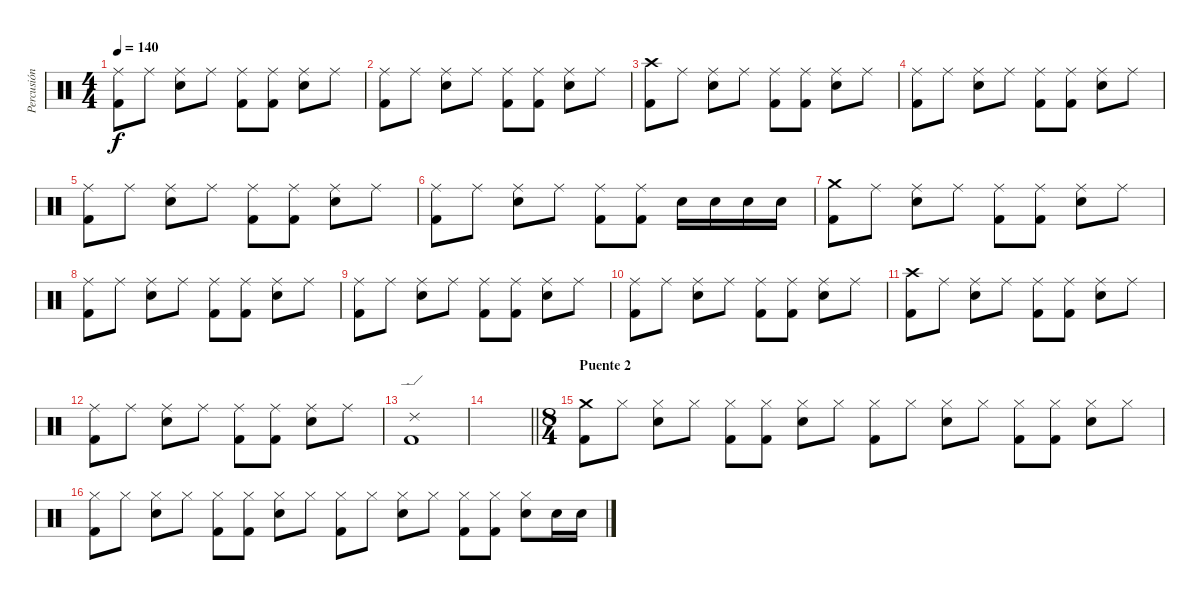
\track ("Percusión" "Percusión") {instrument percussion}
\staff {score}
\articulation defaults
\ts (4 4)
\tempo 140
\clef neutral
\ks c
("Ride (middle)" "Kick (hit) 2").8{dy f} "Ride (middle)".8 ("Ride (middle)" "Electric Snare (hit)").8 "Ride (middle)".8 ("Ride (middle)" "Kick (hit) 2").8 ("Ride (middle)" "Kick (hit) 2").8 ("Ride (middle)" "Electric Snare (hit)").8 "Ride (middle)".8 |
("Ride (middle)" "Kick (hit) 2").8 "Ride (middle)".8 ("Ride (middle)" "Electric Snare (hit)").8 "Ride (middle)".8 ("Ride (middle)" "Kick (hit) 2").8 ("Ride (middle)" "Kick (hit) 2").8 ("Ride (middle)" "Electric Snare (hit)").8 "Ride (middle)".8 |
("Crash high (hit)" "Kick (hit) 2").8 "Ride (middle)".8 ("Ride (middle)" "Electric Snare (hit)").8 "Ride (middle)".8 ("Ride (middle)" "Kick (hit) 2").8 ("Ride (middle)" "Kick (hit) 2").8 ("Ride (middle)" "Electric Snare (hit)").8 "Ride (middle)".8 |
("Ride (middle)" "Kick (hit) 2").8 "Ride (middle)".8 ("Ride (middle)" "Electric Snare (hit)").8 "Ride (middle)".8 ("Ride (middle)" "Kick (hit) 2").8 ("Ride (middle)" "Kick (hit) 2").8 ("Ride (middle)" "Electric Snare (hit)").8 "Ride (middle)".8 |
("Ride (middle)" "Kick (hit) 2").8 "Ride (middle)".8 ("Ride (middle)" "Electric Snare (hit)").8 "Ride (middle)".8 ("Ride (middle)" "Kick (hit) 2").8 ("Ride (middle)" "Kick (hit) 2").8 ("Ride (middle)" "Electric Snare (hit)").8 "Ride (middle)".8 |
("Ride (middle)" "Kick (hit) 2").8 "Ride (middle)".8 ("Ride (middle)" "Electric Snare (hit)").8 "Ride (middle)".8 ("Ride (middle)" "Kick (hit) 2").8 ("Ride (middle)" "Kick (hit) 2").8 "Electric Snare (hit)".16 "Electric Snare (hit)".16 "Electric Snare (hit)".16 "Electric Snare (hit)".16 |
("Crash medium (hit)" "Kick (hit) 2").8 "Ride (middle)".8 ("Ride (middle)" "Electric Snare (hit)").8 "Ride (middle)".8 ("Ride (middle)" "Kick (hit) 2").8 ("Ride (middle)" "Kick (hit) 2").8 ("Ride (middle)" "Electric Snare (hit)").8 "Ride (middle)".8 |
("Ride (middle)" "Kick (hit) 2").8 "Ride (middle)".8 ("Ride (middle)" "Electric Snare (hit)").8 "Ride (middle)".8 ("Ride (middle)" "Kick (hit) 2").8 ("Ride (middle)" "Kick (hit) 2").8 ("Ride (middle)" "Electric Snare (hit)").8 "Ride (middle)".8 |
("Ride (middle)" "Kick (hit) 2").8 "Ride (middle)".8 ("Ride (middle)" "Electric Snare (hit)").8 "Ride (middle)".8 ("Ride (middle)" "Kick (hit) 2").8 ("Ride (middle)" "Kick (hit) 2").8 ("Ride (middle)" "Electric Snare (hit)").8 "Ride (middle)".8 |
("Ride (middle)" "Kick (hit) 2").8 "Ride (middle)".8 ("Ride (middle)" "Electric Snare (hit)").8 "Ride (middle)".8 ("Ride (middle)" "Kick (hit) 2").8 ("Ride (middle)" "Kick (hit) 2").8 ("Ride (middle)" "Electric Snare (hit)").8 "Ride (middle)".8 |
("Crash high (hit)" "Kick (hit) 2").8 "Ride (middle)".8 ("Ride (middle)" "Electric Snare (hit)").8 "Ride (middle)".8 ("Ride (middle)" "Kick (hit) 2").8 ("Ride (middle)" "Kick (hit) 2").8 ("Ride (middle)" "Electric Snare (hit)").8 "Ride (middle)".8 |
("Ride (middle)" "Kick (hit) 2").8 "Ride (middle)".8 ("Ride (middle)" "Electric Snare (hit)").8 "Ride (middle)".8 ("Ride (middle)" "Kick (hit) 2").8 ("Ride (middle)" "Kick (hit) 2").8 ("Ride (middle)" "Electric Snare (hit)").8 "Ride (middle)".8 |
("Ride (edge) 2" "Kick (hit) 2").1 |
\barLineRight lightlight
|
\ts (8 4)
\section ("" "Puente 2")
("Crash medium (hit)" "Kick (hit) 2").8 "Hi-Hat (closed)".8 ("Hi-Hat (closed)" "Electric Snare (hit)").8 "Hi-Hat (closed)".8 ("Hi-Hat (closed)" "Kick (hit) 2").8 ("Hi-Hat (closed)" "Kick (hit) 2").8 ("Hi-Hat (closed)" "Electric Snare (hit)").8 "Hi-Hat (closed)".8 ("Hi-Hat (closed)" "Kick (hit) 2").8 "Hi-Hat (closed)".8 ("Hi-Hat (closed)" "Electric Snare (hit)").8 "Hi-Hat (closed)".8 ("Hi-Hat (closed)" "Kick (hit) 2").8 ("Hi-Hat (closed)" "Kick (hit) 2").8 ("Hi-Hat (closed)" "Electric Snare (hit)").8 "Hi-Hat (closed)".8 |
("Hi-Hat (closed)" "Kick (hit) 2").8 "Hi-Hat (closed)".8 ("Hi-Hat (closed)" "Electric Snare (hit)").8 "Hi-Hat (closed)".8 ("Hi-Hat (closed)" "Kick (hit) 2").8 ("Hi-Hat (closed)" "Kick (hit) 2").8 ("Hi-Hat (closed)" "Electric Snare (hit)").8 "Hi-Hat (closed)".8 ("Hi-Hat (closed)" "Kick (hit) 2").8 "Hi-Hat (closed)".8 ("Hi-Hat (closed)" "Electric Snare (hit)").8 "Hi-Hat (closed)".8 ("Hi-Hat (closed)" "Kick (hit) 2").8 ("Hi-Hat (closed)" "Kick (hit) 2").8 ("Hi-Hat (closed)" "Electric Snare (hit)").8 "Electric Snare (hit)".16 "Electric Snare (hit)".16
